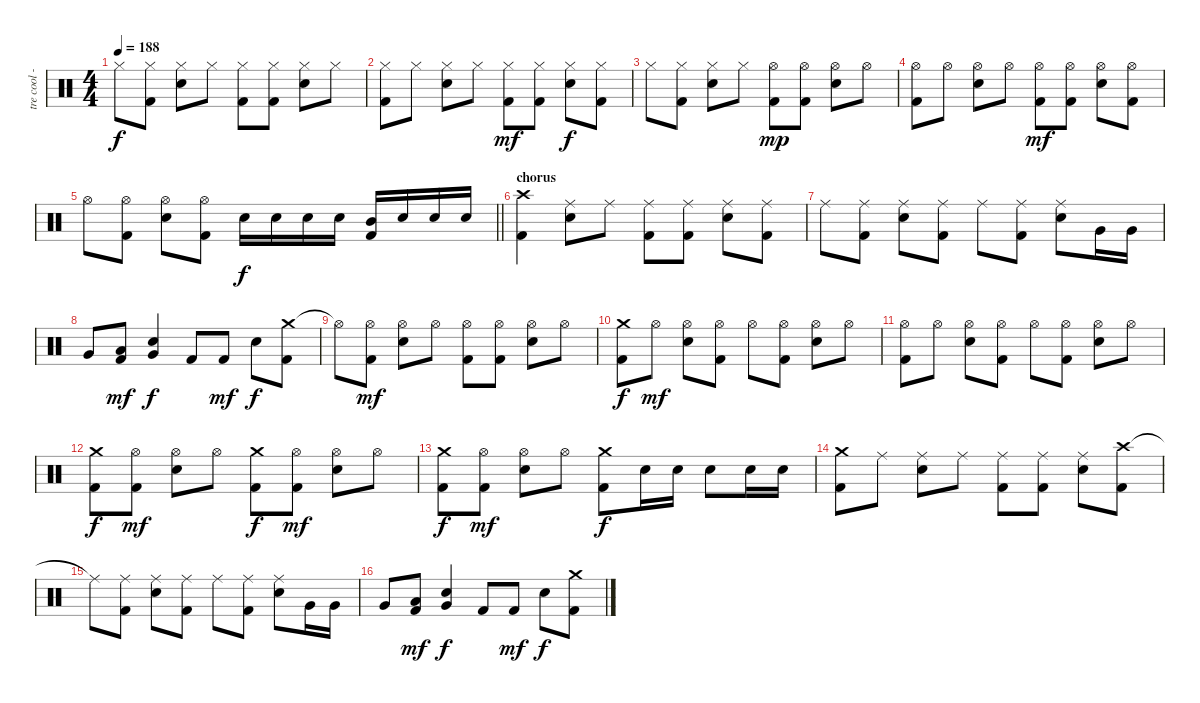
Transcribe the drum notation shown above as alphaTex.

\track ("tre cool - drums" "tre cool -") {instrument percussion}
\staff {score}
\articulation defaults
\ts (4 4)
\tempo 188
\clef neutral
\ks c "Hi-Hat (closed)".8{dy f}
("Hi-Hat (closed)" "Kick (hit) 2").8 ("Hi-Hat (closed)" "Electric Snare (hit)").8 "Hi-Hat (closed)".8 ("Hi-Hat (closed)" "Kick (hit) 2").8 ("Hi-Hat (closed)" "Kick (hit) 2").8 ("Hi-Hat (closed)" "Electric Snare (hit)").8 "Hi-Hat (closed)".8 |
("Hi-Hat (closed)" "Kick (hit) 2").8 "Hi-Hat (closed)".8 ("Hi-Hat (closed)" "Electric Snare (hit)").8 "Hi-Hat (closed)".8 ("Hi-Hat (closed)" "Kick (hit) 2").8{dy mf} ("Hi-Hat (closed)" "Kick (hit) 2").8 ("Hi-Hat (closed)" "Electric Snare (hit)").8{dy f} ("Hi-Hat (closed)" "Kick (hit) 2").8 |
"Hi-Hat (closed)".8 ("Hi-Hat (closed)" "Kick (hit) 2").8 ("Hi-Hat (closed)" "Electric Snare (hit)").8 "Hi-Hat (closed)".8 ("Hi-Hat (open)" "Kick (hit) 2").8{dy mp} ("Hi-Hat (open)" "Kick (hit) 2").8 ("Hi-Hat (open)" "Electric Snare (hit)").8 "Hi-Hat (open)".8 |
("Hi-Hat (open)" "Kick (hit) 2").8 "Hi-Hat (open)".8 ("Hi-Hat (open)" "Electric Snare (hit)").8 "Hi-Hat (open)".8 ("Hi-Hat (open)" "Kick (hit) 2").8{dy mf} ("Hi-Hat (open)" "Kick (hit) 2").8 ("Hi-Hat (open)" "Electric Snare (hit)").8 ("Hi-Hat (open)" "Kick (hit) 2").8 |
\barLineRight lightlight "Hi-Hat (open)".8
("Hi-Hat (open)" "Kick (hit) 2").8 ("Hi-Hat (open)" "Electric Snare (hit)").8 ("Hi-Hat (open)" "Kick (hit) 2").8 "Electric Snare (hit)".16{dy f} "Electric Snare (hit)".16 "Electric Snare (hit)".16 "Electric Snare (hit)".16 ("Mid Tom (hit)" "Kick (hit) 2").16 "Electric Snare (hit)".16 "Electric Snare (hit)".16 "Electric Snare (hit)".16 |
\section ("" "chorus")
("Crash high (hit)" "Kick (hit) 2").4 ("Ride (middle)" "Electric Snare (hit)").8 "Ride (middle)".8 ("Ride (middle)" "Kick (hit) 2").8 ("Ride (middle)" "Kick (hit) 2").8 ("Ride (middle)" "Electric Snare (hit)").8 ("Ride (middle)" "Kick (hit) 2").8 |
"Ride (middle)".8 ("Ride (middle)" "Kick (hit) 2").8 ("Ride (middle)" "Electric Snare (hit)").8 ("Ride (middle)" "Kick (hit) 2").8 "Ride (middle)".8 ("Ride (middle)" "Kick (hit) 2").8 ("Ride (middle)" "Electric Snare (hit)").8 "Very Low Tom (hit)".16 "Very Low Tom (hit)".16 |
"Very Low Tom (hit)".8 ("Low Tom (hit)" "Kick (hit) 2").8{dy mf} ("Electric Snare (hit)" "Very Low Tom (hit)").4{dy f} "Kick (hit) 2".8 "Kick (hit) 2".8{dy mf} "Electric Snare (hit)".8{dy f} ("Crash medium (hit)" "Kick (hit) 2").8 |
"Hi-Hat (open)"{t}.8 ("Hi-Hat (open)" "Kick (hit) 2").8{dy mf} ("Hi-Hat (open)" "Electric Snare (hit)").8 "Hi-Hat (open)".8 ("Hi-Hat (open)" "Kick (hit) 2").8 ("Hi-Hat (open)" "Kick (hit) 2").8 ("Hi-Hat (open)" "Electric Snare (hit)").8 "Hi-Hat (open)".8 |
("Crash medium (hit)" "Kick (hit) 2").8{dy f} "Hi-Hat (open)".8{dy mf} ("Hi-Hat (open)" "Electric Snare (hit)").8 ("Hi-Hat (open)" "Kick (hit) 2").8 "Hi-Hat (open)".8 ("Hi-Hat (open)" "Kick (hit) 2").8 ("Hi-Hat (open)" "Electric Snare (hit)").8 "Hi-Hat (open)".8 |
("Hi-Hat (open)" "Kick (hit) 2").8 "Hi-Hat (open)".8 ("Hi-Hat (open)" "Electric Snare (hit)").8 ("Hi-Hat (open)" "Kick (hit) 2").8 "Hi-Hat (open)".8 ("Hi-Hat (open)" "Kick (hit) 2").8 ("Hi-Hat (open)" "Electric Snare (hit)").8 "Hi-Hat (open)".8 |
("Crash medium (hit)" "Kick (hit) 2").8{dy f} ("Hi-Hat (open)" "Kick (hit) 2").8{dy mf} ("Hi-Hat (open)" "Electric Snare (hit)").8 "Hi-Hat (open)".8 ("Crash medium (hit)" "Kick (hit) 2").8{dy f} ("Hi-Hat (open)" "Kick (hit) 2").8{dy mf} ("Hi-Hat (open)" "Electric Snare (hit)").8 "Hi-Hat (open)".8 |
("Crash medium (hit)" "Kick (hit) 2").8{dy f} ("Hi-Hat (open)" "Kick (hit) 2").8{dy mf} ("Hi-Hat (open)" "Electric Snare (hit)").8 "Hi-Hat (open)".8 ("Crash medium (hit)" "Kick (hit) 2").8{dy f} "Electric Snare (hit)".16 "Electric Snare (hit)".16 "Electric Snare (hit)".8 "Electric Snare (hit)".16 "Electric Snare (hit)".16 |
("Crash medium (hit)" "Kick (hit) 2").8 "Ride (middle)".8 ("Ride (middle)" "Electric Snare (hit)").8 "Ride (middle)".8 ("Ride (middle)" "Kick (hit) 2").8 ("Ride (middle)" "Kick (hit) 2").8 ("Ride (middle)" "Electric Snare (hit)").8 ("Crash high (hit)" "Kick (hit) 2").8 |
"Ride (middle)"{t}.8 ("Ride (middle)" "Kick (hit) 2").8 ("Ride (middle)" "Electric Snare (hit)").8 ("Ride (middle)" "Kick (hit) 2").8 "Ride (middle)".8 ("Ride (middle)" "Kick (hit) 2").8 ("Ride (middle)" "Electric Snare (hit)").8 "Very Low Tom (hit)".16 "Very Low Tom (hit)".16 |
"Very Low Tom (hit)".8 ("Low Tom (hit)" "Kick (hit) 2").8{dy mf} ("Electric Snare (hit)" "Very Low Tom (hit)").4{dy f} "Kick (hit) 2".8 "Kick (hit) 2".8{dy mf} "Electric Snare (hit)".8{dy f} ("Crash medium (hit)" "Kick (hit) 2").8
